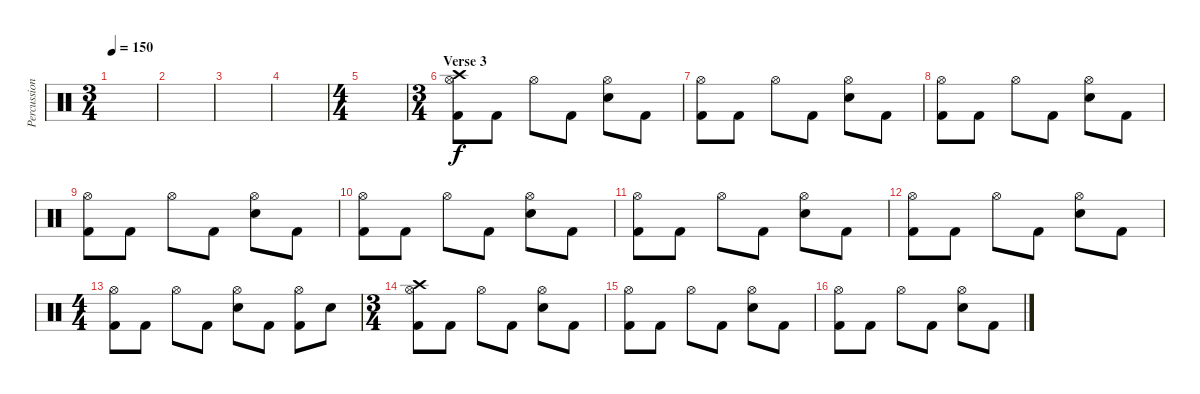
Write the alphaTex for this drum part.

\track ("Percussions" "Percussion") {instrument percussion}
\staff {score}
\articulation defaults
\ts (3 4)
\tempo 150
\clef neutral
\ks c
|
|
|
|
\ts (4 4)
|
\ts (3 4)
\section ("" "Verse 3")
("Crash high (hit)" "Hi-Hat (open)" "Kick (hit) 2").8 "Kick (hit) 2".8 "Hi-Hat (open)".8 "Kick (hit) 2".8 ("Hi-Hat (open)" "Electric Snare (hit)").8 "Kick (hit) 2".8 |
("Hi-Hat (open)" "Kick (hit) 2").8 "Kick (hit) 2".8 "Hi-Hat (open)".8 "Kick (hit) 2".8 ("Hi-Hat (open)" "Electric Snare (hit)").8 "Kick (hit) 2".8 |
("Hi-Hat (open)" "Kick (hit) 2").8 "Kick (hit) 2".8 "Hi-Hat (open)".8 "Kick (hit) 2".8 ("Hi-Hat (open)" "Electric Snare (hit)").8 "Kick (hit) 2".8 |
("Hi-Hat (open)" "Kick (hit) 2").8 "Kick (hit) 2".8 "Hi-Hat (open)".8 "Kick (hit) 2".8 ("Hi-Hat (open)" "Electric Snare (hit)").8 "Kick (hit) 2".8 |
("Hi-Hat (open)" "Kick (hit) 2").8 "Kick (hit) 2".8 "Hi-Hat (open)".8 "Kick (hit) 2".8 ("Hi-Hat (open)" "Electric Snare (hit)").8 "Kick (hit) 2".8 |
("Hi-Hat (open)" "Kick (hit) 2").8 "Kick (hit) 2".8 "Hi-Hat (open)".8 "Kick (hit) 2".8 ("Hi-Hat (open)" "Electric Snare (hit)").8 "Kick (hit) 2".8 |
("Hi-Hat (open)" "Kick (hit) 2").8 "Kick (hit) 2".8 "Hi-Hat (open)".8 "Kick (hit) 2".8 ("Hi-Hat (open)" "Electric Snare (hit)").8 "Kick (hit) 2".8 |
\ts (4 4)
("Hi-Hat (open)" "Kick (hit) 2").8 "Kick (hit) 2".8 "Hi-Hat (open)".8 "Kick (hit) 2".8 ("Hi-Hat (open)" "Electric Snare (hit)").8 "Kick (hit) 2".8 ("Hi-Hat (open)" "Kick (hit) 2").8 "Electric Snare (hit)".8 |
\ts (3 4)
("Crash high (hit)" "Hi-Hat (open)" "Kick (hit) 2").8 "Kick (hit) 2".8 "Hi-Hat (open)".8 "Kick (hit) 2".8 ("Hi-Hat (open)" "Electric Snare (hit)").8 "Kick (hit) 2".8 |
("Hi-Hat (open)" "Kick (hit) 2").8 "Kick (hit) 2".8 "Hi-Hat (open)".8 "Kick (hit) 2".8 ("Hi-Hat (open)" "Electric Snare (hit)").8 "Kick (hit) 2".8 |
("Hi-Hat (open)" "Kick (hit) 2").8 "Kick (hit) 2".8 "Hi-Hat (open)".8 "Kick (hit) 2".8 ("Hi-Hat (open)" "Electric Snare (hit)").8 "Kick (hit) 2".8
